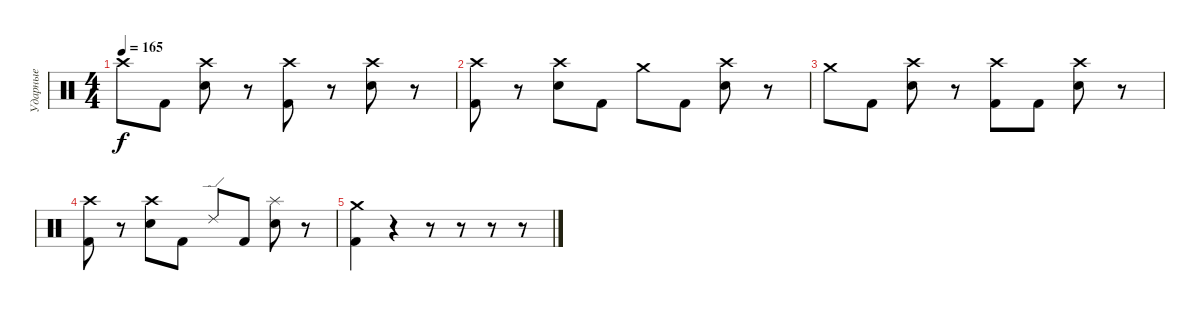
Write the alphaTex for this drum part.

\track ("Ударные" "Ударные") {instrument percussion}
\staff {score}
\articulation defaults
\ts (4 4)
\tempo 165
\clef neutral
\ks c "Crash high (hit)".8{dy f} "Kick (hit) 2".8
("Crash high (hit)" "Snare (hit) 2").8 r.8 ("Crash high (hit)" "Kick (hit) 2").8 r.8 ("Crash high (hit)" "Snare (hit) 2").8 r.8 |
("Crash high (hit)" "Kick (hit) 2").8 r.8 ("Crash high (hit)" "Snare (hit) 2").8 "Kick (hit) 2".8 "Crash medium (hit)".8 "Kick (hit) 2".8 ("Crash high (hit)" "Snare (hit) 2").8 r.8 |
"Crash medium (hit)".8 "Kick (hit) 2".8 ("Crash high (hit)" "Snare (hit) 2").8 r.8 ("Crash high (hit)" "Kick (hit) 2").8 "Kick (hit) 2".8 ("Crash high (hit)" "Snare (hit) 2").8 r.8 |
("Crash high (hit)" "Kick (hit) 2").8 r.8 ("Crash high (hit)" "Snare (hit) 2").8 "Kick (hit) 2".8 "Ride (edge) 2".8 "Kick (hit) 2".8 ("Splash (hit)" "Snare (hit) 2").8 r.8 |
("Crash medium (hit)" "Kick (hit) 2").4 r.4 r.8 r.8 r.8 r.8
